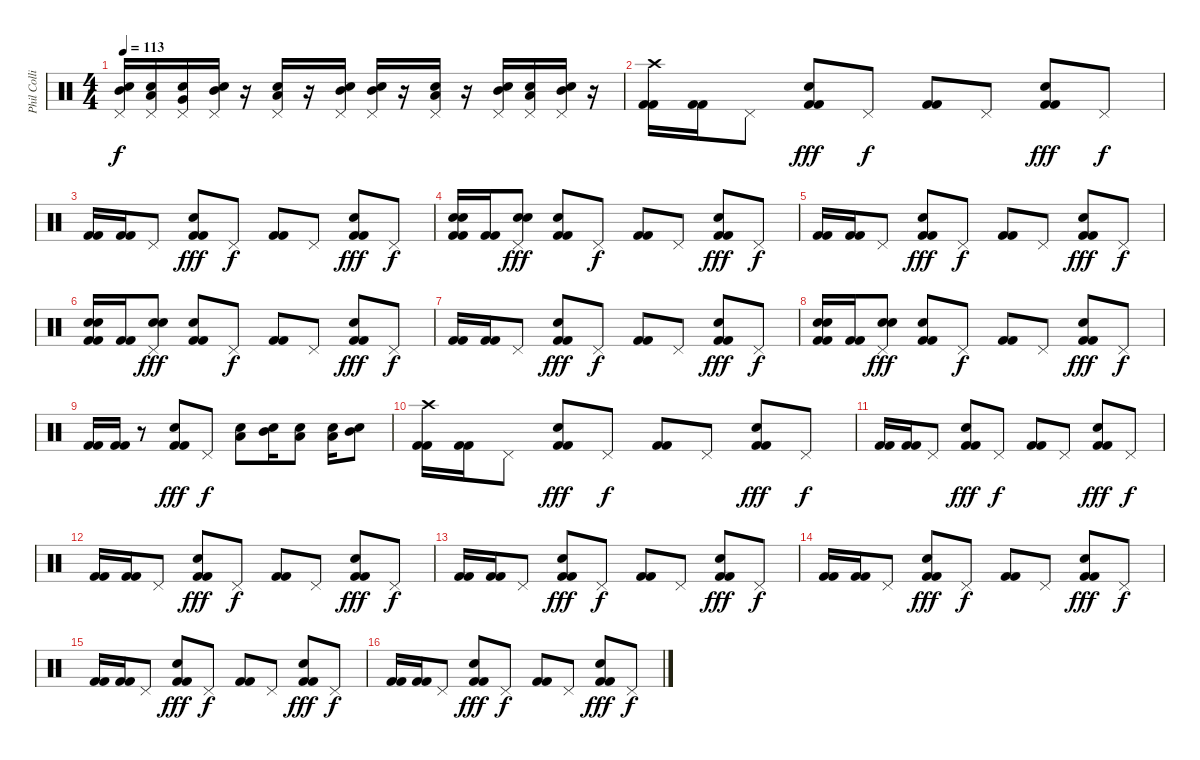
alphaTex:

\track ("Phil Collins" "Phil Colli") {instrument percussion}
\staff {score}
\articulation defaults
\ts (4 4)
\tempo 113
\clef neutral
\ks c
("Pedal Hi-Hat (hit)" "Electric Snare (hit)" "Mid Tom (hit)").16{dy f} ("Pedal Hi-Hat (hit)" "Electric Snare (hit)" "Low Tom (hit)").16 ("Pedal Hi-Hat (hit)" "Electric Snare (hit)" "Very Low Tom (hit)").16 ("Pedal Hi-Hat (hit)" "Electric Snare (hit)" "Mid Tom (hit)").16 r.16 ("Pedal Hi-Hat (hit)" "Electric Snare (hit)" "Low Tom (hit)").16 r.16 ("Pedal Hi-Hat (hit)" "Electric Snare (hit)" "Mid Tom (hit)").16 ("Pedal Hi-Hat (hit)" "Electric Snare (hit)" "Mid Tom (hit)").16 r.16 ("Pedal Hi-Hat (hit)" "Electric Snare (hit)" "Low Tom (hit)").16 r.16 ("Pedal Hi-Hat (hit)" "Electric Snare (hit)" "Mid Tom (hit)").16 ("Pedal Hi-Hat (hit)" "Electric Snare (hit)" "Low Tom (hit)").16 ("Pedal Hi-Hat (hit)" "Electric Snare (hit)" "Mid Tom (hit)").16 r.16 |
("Crash high (hit)" "Kick (hit) 2" "Kick (hit) 2").16 ("Kick (hit) 2" "Kick (hit) 2").16 "Pedal Hi-Hat (hit)".8 ("Electric Snare (hit)" "Kick (hit) 2" "Kick (hit) 2").8{dy fff} "Pedal Hi-Hat (hit)".8{dy f} ("Kick (hit) 2" "Kick (hit) 2").8 "Pedal Hi-Hat (hit)".8 ("Electric Snare (hit)" "Kick (hit) 2" "Kick (hit) 2").8{dy fff} "Pedal Hi-Hat (hit)".8{dy f} |
("Kick (hit) 2" "Kick (hit) 2").16 ("Kick (hit) 2" "Kick (hit) 2").16 "Pedal Hi-Hat (hit)".8 ("Electric Snare (hit)" "Kick (hit) 2" "Kick (hit) 2").8{dy fff} "Pedal Hi-Hat (hit)".8{dy f} ("Kick (hit) 2" "Kick (hit) 2").8 "Pedal Hi-Hat (hit)".8 ("Electric Snare (hit)" "Kick (hit) 2" "Kick (hit) 2").8{dy fff} "Pedal Hi-Hat (hit)".8{dy f} |
("Hand Clap (hit)" "Kick (hit) 2" "Kick (hit) 2" "Hand Clap (hit)").16 ("Kick (hit) 2" "Kick (hit) 2").16 ("Pedal Hi-Hat (hit)" "Hand Clap (hit)" "Hand Clap (hit)").8{dy fff} ("Electric Snare (hit)" "Kick (hit) 2" "Kick (hit) 2").8 "Pedal Hi-Hat (hit)".8{dy f} ("Kick (hit) 2" "Kick (hit) 2").8 "Pedal Hi-Hat (hit)".8 ("Electric Snare (hit)" "Kick (hit) 2" "Kick (hit) 2").8{dy fff} "Pedal Hi-Hat (hit)".8{dy f} |
("Kick (hit) 2" "Kick (hit) 2").16 ("Kick (hit) 2" "Kick (hit) 2").16 "Pedal Hi-Hat (hit)".8 ("Electric Snare (hit)" "Kick (hit) 2" "Kick (hit) 2").8{dy fff} "Pedal Hi-Hat (hit)".8{dy f} ("Kick (hit) 2" "Kick (hit) 2").8 "Pedal Hi-Hat (hit)".8 ("Electric Snare (hit)" "Kick (hit) 2" "Kick (hit) 2").8{dy fff} "Pedal Hi-Hat (hit)".8{dy f} |
("Hand Clap (hit)" "Kick (hit) 2" "Kick (hit) 2" "Hand Clap (hit)").16 ("Kick (hit) 2" "Kick (hit) 2").16 ("Pedal Hi-Hat (hit)" "Hand Clap (hit)" "Hand Clap (hit)").8{dy fff} ("Electric Snare (hit)" "Kick (hit) 2" "Kick (hit) 2").8 "Pedal Hi-Hat (hit)".8{dy f} ("Kick (hit) 2" "Kick (hit) 2").8 "Pedal Hi-Hat (hit)".8 ("Electric Snare (hit)" "Kick (hit) 2" "Kick (hit) 2").8{dy fff} "Pedal Hi-Hat (hit)".8{dy f} |
("Kick (hit) 2" "Kick (hit) 2").16 ("Kick (hit) 2" "Kick (hit) 2").16 "Pedal Hi-Hat (hit)".8 ("Electric Snare (hit)" "Kick (hit) 2" "Kick (hit) 2").8{dy fff} "Pedal Hi-Hat (hit)".8{dy f} ("Kick (hit) 2" "Kick (hit) 2").8 "Pedal Hi-Hat (hit)".8 ("Electric Snare (hit)" "Kick (hit) 2" "Kick (hit) 2").8{dy fff} "Pedal Hi-Hat (hit)".8{dy f} |
("Hand Clap (hit)" "Kick (hit) 2" "Kick (hit) 2" "Hand Clap (hit)").16 ("Kick (hit) 2" "Kick (hit) 2").16 ("Pedal Hi-Hat (hit)" "Hand Clap (hit)" "Hand Clap (hit)").8{dy fff} ("Electric Snare (hit)" "Kick (hit) 2" "Kick (hit) 2").8 "Pedal Hi-Hat (hit)".8{dy f} ("Kick (hit) 2" "Kick (hit) 2").8 "Pedal Hi-Hat (hit)".8 ("Electric Snare (hit)" "Kick (hit) 2" "Kick (hit) 2").8{dy fff} "Pedal Hi-Hat (hit)".8{dy f} |
("Kick (hit) 2" "Kick (hit) 2").16 ("Kick (hit) 2" "Kick (hit) 2").16 r.8 ("Electric Snare (hit)" "Kick (hit) 2" "Kick (hit) 2").8{dy fff} "Pedal Hi-Hat (hit)".8{dy f} ("Electric Snare (hit)" "Low Tom (hit)").8 ("Electric Snare (hit)" "Mid Tom (hit)").16 ("Electric Snare (hit)" "Low Tom (hit)").8 ("Electric Snare (hit)" "Low Tom (hit)").16 ("Electric Snare (hit)" "Mid Tom (hit)").8 |
("Crash high (hit)" "Kick (hit) 2" "Kick (hit) 2").16 ("Kick (hit) 2" "Kick (hit) 2").16 "Pedal Hi-Hat (hit)".8 ("Electric Snare (hit)" "Kick (hit) 2" "Kick (hit) 2").8{dy fff} "Pedal Hi-Hat (hit)".8{dy f} ("Kick (hit) 2" "Kick (hit) 2").8 "Pedal Hi-Hat (hit)".8 ("Electric Snare (hit)" "Kick (hit) 2" "Kick (hit) 2").8{dy fff} "Pedal Hi-Hat (hit)".8{dy f} |
("Kick (hit) 2" "Kick (hit) 2").16 ("Kick (hit) 2" "Kick (hit) 2").16 "Pedal Hi-Hat (hit)".8 ("Electric Snare (hit)" "Kick (hit) 2" "Kick (hit) 2").8{dy fff} "Pedal Hi-Hat (hit)".8{dy f} ("Kick (hit) 2" "Kick (hit) 2").8 "Pedal Hi-Hat (hit)".8 ("Electric Snare (hit)" "Kick (hit) 2" "Kick (hit) 2").8{dy fff} "Pedal Hi-Hat (hit)".8{dy f} |
("Kick (hit) 2" "Kick (hit) 2").16 ("Kick (hit) 2" "Kick (hit) 2").16 "Pedal Hi-Hat (hit)".8 ("Electric Snare (hit)" "Kick (hit) 2" "Kick (hit) 2").8{dy fff} "Pedal Hi-Hat (hit)".8{dy f} ("Kick (hit) 2" "Kick (hit) 2").8 "Pedal Hi-Hat (hit)".8 ("Electric Snare (hit)" "Kick (hit) 2" "Kick (hit) 2").8{dy fff} "Pedal Hi-Hat (hit)".8{dy f} |
("Kick (hit) 2" "Kick (hit) 2").16 ("Kick (hit) 2" "Kick (hit) 2").16 "Pedal Hi-Hat (hit)".8 ("Electric Snare (hit)" "Kick (hit) 2" "Kick (hit) 2").8{dy fff} "Pedal Hi-Hat (hit)".8{dy f} ("Kick (hit) 2" "Kick (hit) 2").8 "Pedal Hi-Hat (hit)".8 ("Electric Snare (hit)" "Kick (hit) 2" "Kick (hit) 2").8{dy fff} "Pedal Hi-Hat (hit)".8{dy f} |
("Kick (hit) 2" "Kick (hit) 2").16 ("Kick (hit) 2" "Kick (hit) 2").16 "Pedal Hi-Hat (hit)".8 ("Electric Snare (hit)" "Kick (hit) 2" "Kick (hit) 2").8{dy fff} "Pedal Hi-Hat (hit)".8{dy f} ("Kick (hit) 2" "Kick (hit) 2").8 "Pedal Hi-Hat (hit)".8 ("Electric Snare (hit)" "Kick (hit) 2" "Kick (hit) 2").8{dy fff} "Pedal Hi-Hat (hit)".8{dy f} |
("Kick (hit) 2" "Kick (hit) 2").16 ("Kick (hit) 2" "Kick (hit) 2").16 "Pedal Hi-Hat (hit)".8 ("Electric Snare (hit)" "Kick (hit) 2" "Kick (hit) 2").8{dy fff} "Pedal Hi-Hat (hit)".8{dy f} ("Kick (hit) 2" "Kick (hit) 2").8 "Pedal Hi-Hat (hit)".8 ("Electric Snare (hit)" "Kick (hit) 2" "Kick (hit) 2").8{dy fff} "Pedal Hi-Hat (hit)".8{dy f} |
("Kick (hit) 2" "Kick (hit) 2").16 ("Kick (hit) 2" "Kick (hit) 2").16 "Pedal Hi-Hat (hit)".8 ("Electric Snare (hit)" "Kick (hit) 2" "Kick (hit) 2").8{dy fff} "Pedal Hi-Hat (hit)".8{dy f} ("Kick (hit) 2" "Kick (hit) 2").8 "Pedal Hi-Hat (hit)".8 ("Electric Snare (hit)" "Kick (hit) 2" "Kick (hit) 2").8{dy fff} "Pedal Hi-Hat (hit)".8{dy f}
